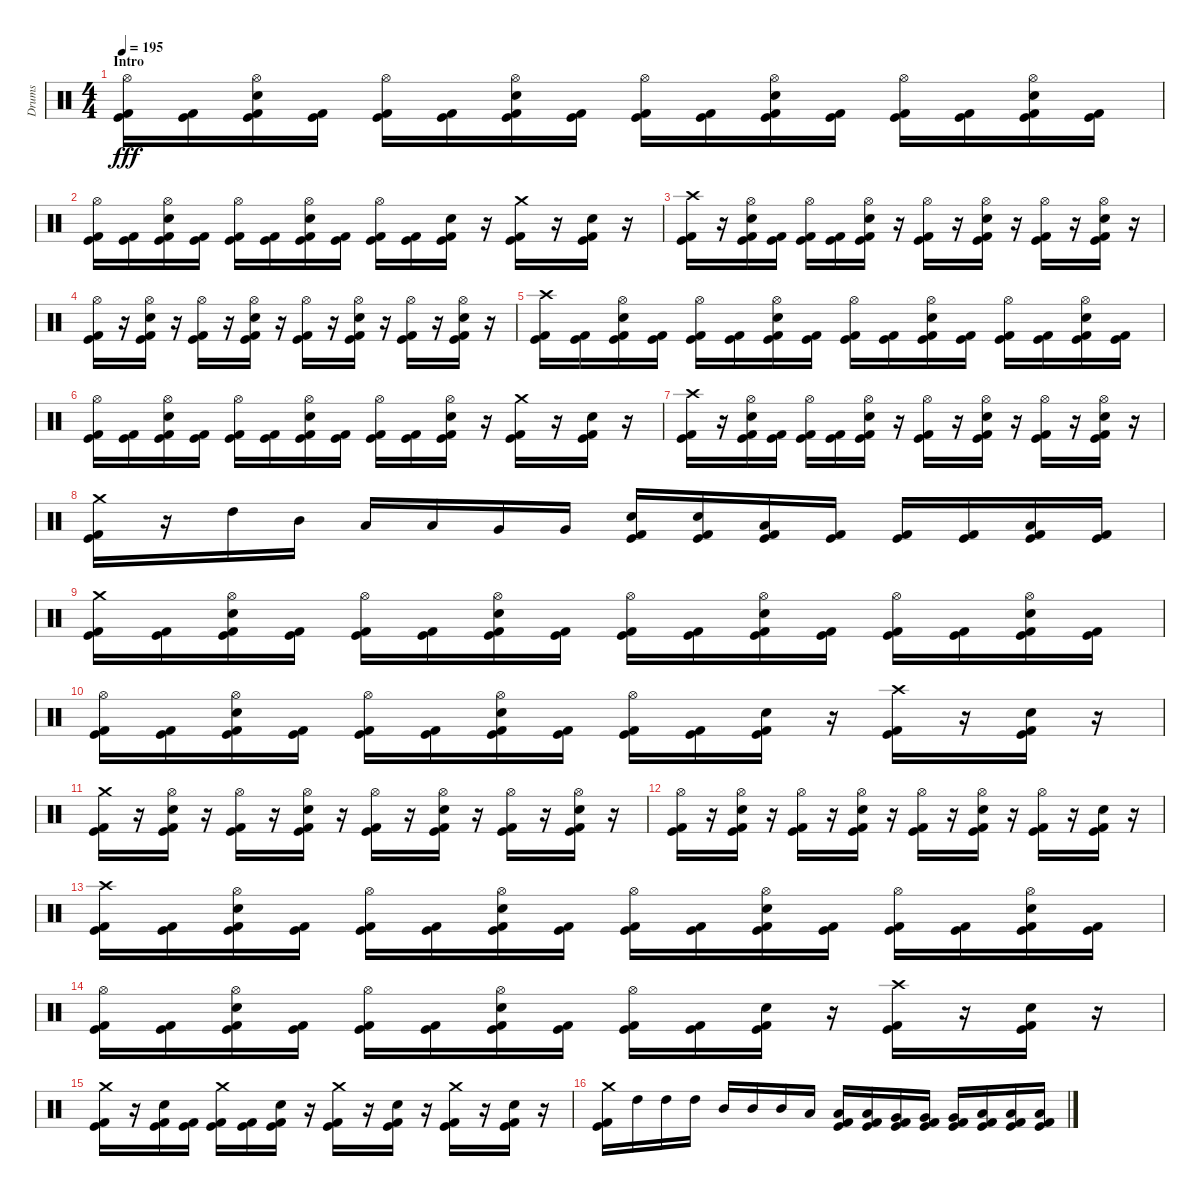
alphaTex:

\track ("Drums" "Drums") {instrument percussion}
\staff {score}
\articulation defaults
\ts (4 4)
\section ("" "Intro")
\tempo 195
\clef neutral
\ks c
("Kick (hit) 2" "Kick (hit)" "Hi-Hat (open)").16{dy fff} ("Kick (hit) 2" "Kick (hit)").16 ("Kick (hit) 2" "Kick (hit)" "Snare (hit) 2" "Hi-Hat (open)").16 ("Kick (hit) 2" "Kick (hit)").16 ("Kick (hit) 2" "Kick (hit)" "Hi-Hat (open)").16 ("Kick (hit) 2" "Kick (hit)").16 ("Kick (hit) 2" "Kick (hit)" "Snare (hit) 2" "Hi-Hat (open)").16 ("Kick (hit) 2" "Kick (hit)").16 ("Kick (hit) 2" "Kick (hit)" "Hi-Hat (open)").16 ("Kick (hit) 2" "Kick (hit)").16 ("Kick (hit) 2" "Kick (hit)" "Snare (hit) 2" "Hi-Hat (open)").16 ("Kick (hit) 2" "Kick (hit)").16 ("Kick (hit) 2" "Kick (hit)" "Hi-Hat (open)").16 ("Kick (hit) 2" "Kick (hit)").16 ("Kick (hit) 2" "Kick (hit)" "Snare (hit) 2" "Hi-Hat (open)").16 ("Kick (hit) 2" "Kick (hit)").16 |
("Kick (hit) 2" "Kick (hit)" "Hi-Hat (open)").16 ("Kick (hit) 2" "Kick (hit)").16 ("Kick (hit) 2" "Kick (hit)" "Snare (hit) 2" "Hi-Hat (open)").16 ("Kick (hit) 2" "Kick (hit)").16 ("Kick (hit) 2" "Kick (hit)" "Hi-Hat (open)").16 ("Kick (hit) 2" "Kick (hit)").16 ("Kick (hit) 2" "Kick (hit)" "Snare (hit) 2" "Hi-Hat (open)").16 ("Kick (hit) 2" "Kick (hit)").16 ("Kick (hit) 2" "Kick (hit)" "Hi-Hat (open)").16 ("Kick (hit) 2" "Kick (hit)").16 ("Kick (hit) 2" "Kick (hit)" "Snare (hit) 2").16 r.16 ("Kick (hit) 2" "Kick (hit)" "Crash medium (hit)").16 r.16 ("Kick (hit) 2" "Kick (hit)" "Snare (hit) 2").16 r.16 |
("Kick (hit) 2" "Kick (hit)" "Crash high (hit)").16 r.16 ("Kick (hit) 2" "Kick (hit)" "Snare (hit) 2" "Hi-Hat (open)").16 ("Kick (hit) 2" "Kick (hit)").16 ("Kick (hit) 2" "Kick (hit)" "Hi-Hat (open)").16 ("Kick (hit) 2" "Kick (hit)").16 ("Kick (hit) 2" "Kick (hit)" "Snare (hit) 2" "Hi-Hat (open)").16 r.16 ("Kick (hit) 2" "Kick (hit)" "Hi-Hat (open)").16 r.16 ("Kick (hit) 2" "Kick (hit)" "Snare (hit) 2" "Hi-Hat (open)").16 r.16 ("Kick (hit) 2" "Kick (hit)" "Hi-Hat (open)").16 r.16 ("Kick (hit) 2" "Kick (hit)" "Snare (hit) 2" "Hi-Hat (open)").16 r.16 |
("Kick (hit) 2" "Kick (hit)" "Hi-Hat (open)").16 r.16 ("Kick (hit) 2" "Kick (hit)" "Snare (hit) 2" "Hi-Hat (open)").16 r.16 ("Kick (hit) 2" "Kick (hit)" "Hi-Hat (open)").16 r.16 ("Kick (hit) 2" "Kick (hit)" "Snare (hit) 2" "Hi-Hat (open)").16 r.16 ("Kick (hit) 2" "Kick (hit)" "Hi-Hat (open)").16 r.16 ("Kick (hit) 2" "Kick (hit)" "Snare (hit) 2" "Hi-Hat (open)").16 r.16 ("Kick (hit) 2" "Kick (hit)" "Hi-Hat (open)").16 r.16 ("Kick (hit) 2" "Kick (hit)" "Snare (hit) 2" "Hi-Hat (open)").16 r.16 |
("Kick (hit) 2" "Kick (hit)" "Crash high (hit)").16 ("Kick (hit) 2" "Kick (hit)").16 ("Kick (hit) 2" "Kick (hit)" "Snare (hit) 2" "Hi-Hat (open)").16 ("Kick (hit) 2" "Kick (hit)").16 ("Kick (hit) 2" "Kick (hit)" "Hi-Hat (open)").16 ("Kick (hit) 2" "Kick (hit)").16 ("Kick (hit) 2" "Kick (hit)" "Snare (hit) 2" "Hi-Hat (open)").16 ("Kick (hit) 2" "Kick (hit)").16 ("Kick (hit) 2" "Kick (hit)" "Hi-Hat (open)").16 ("Kick (hit) 2" "Kick (hit)").16 ("Kick (hit) 2" "Kick (hit)" "Snare (hit) 2" "Hi-Hat (open)").16 ("Kick (hit) 2" "Kick (hit)").16 ("Kick (hit) 2" "Kick (hit)" "Hi-Hat (open)").16 ("Kick (hit) 2" "Kick (hit)").16 ("Kick (hit) 2" "Kick (hit)" "Snare (hit) 2" "Hi-Hat (open)").16 ("Kick (hit) 2" "Kick (hit)").16 |
("Kick (hit) 2" "Kick (hit)" "Hi-Hat (open)").16 ("Kick (hit) 2" "Kick (hit)").16 ("Kick (hit) 2" "Kick (hit)" "Snare (hit) 2" "Hi-Hat (open)").16 ("Kick (hit) 2" "Kick (hit)").16 ("Kick (hit) 2" "Kick (hit)" "Hi-Hat (open)").16 ("Kick (hit) 2" "Kick (hit)").16 ("Kick (hit) 2" "Kick (hit)" "Snare (hit) 2" "Hi-Hat (open)").16 ("Kick (hit) 2" "Kick (hit)").16 ("Kick (hit) 2" "Kick (hit)" "Hi-Hat (open)").16 ("Kick (hit) 2" "Kick (hit)").16 ("Kick (hit) 2" "Kick (hit)" "Snare (hit) 2" "Hi-Hat (open)").16 r.16 ("Kick (hit) 2" "Kick (hit)" "Crash medium (hit)").16 r.16 ("Kick (hit) 2" "Kick (hit)" "Snare (hit) 2").16 r.16 |
("Kick (hit) 2" "Kick (hit)" "Crash high (hit)").16 r.16 ("Kick (hit) 2" "Kick (hit)" "Snare (hit) 2" "Hi-Hat (open)").16 ("Kick (hit) 2" "Kick (hit)").16 ("Kick (hit) 2" "Kick (hit)" "Hi-Hat (open)").16 ("Kick (hit) 2" "Kick (hit)").16 ("Kick (hit) 2" "Kick (hit)" "Snare (hit) 2" "Hi-Hat (open)").16 r.16 ("Kick (hit) 2" "Kick (hit)" "Hi-Hat (open)").16 r.16 ("Kick (hit) 2" "Kick (hit)" "Snare (hit) 2" "Hi-Hat (open)").16 r.16 ("Kick (hit) 2" "Kick (hit)" "Hi-Hat (open)").16 r.16 ("Kick (hit) 2" "Kick (hit)" "Snare (hit) 2" "Hi-Hat (open)").16 r.16 |
("Kick (hit) 2" "Kick (hit)" "Crash medium (hit)").16 r.16 "High Tom (hit)".16 "Mid Tom (hit)".16 "Low Tom (hit)".16 "Low Tom (hit)".16 "Very Low Tom (hit)".16 "Very Low Tom (hit)".16 ("Kick (hit) 2" "Kick (hit)" "Snare (hit) 2").16 ("Kick (hit) 2" "Kick (hit)" "Snare (hit) 2").16 ("Kick (hit) 2" "Kick (hit)" "Low Tom (hit)").16 ("Kick (hit) 2" "Kick (hit)").16 ("Kick (hit) 2" "Kick (hit)").16 ("Kick (hit) 2" "Kick (hit)").16 ("Kick (hit) 2" "Kick (hit)" "Low Floor Tom (hit)").16 ("Kick (hit) 2" "Kick (hit)").16 |
("Kick (hit) 2" "Kick (hit)" "Crash medium (hit)").16 ("Kick (hit) 2" "Kick (hit)").16 ("Kick (hit) 2" "Kick (hit)" "Snare (hit) 2" "Hi-Hat (open)").16 ("Kick (hit) 2" "Kick (hit)").16 ("Kick (hit) 2" "Kick (hit)" "Hi-Hat (open)").16 ("Kick (hit) 2" "Kick (hit)").16 ("Kick (hit) 2" "Kick (hit)" "Snare (hit) 2" "Hi-Hat (open)").16 ("Kick (hit) 2" "Kick (hit)").16 ("Kick (hit) 2" "Kick (hit)" "Hi-Hat (open)").16 ("Kick (hit) 2" "Kick (hit)").16 ("Kick (hit) 2" "Kick (hit)" "Snare (hit) 2" "Hi-Hat (open)").16 ("Kick (hit) 2" "Kick (hit)").16 ("Kick (hit) 2" "Kick (hit)" "Hi-Hat (open)").16 ("Kick (hit) 2" "Kick (hit)").16 ("Kick (hit) 2" "Kick (hit)" "Snare (hit) 2" "Hi-Hat (open)").16 ("Kick (hit) 2" "Kick (hit)").16 |
("Kick (hit) 2" "Kick (hit)" "Hi-Hat (open)").16 ("Kick (hit) 2" "Kick (hit)").16 ("Kick (hit) 2" "Kick (hit)" "Snare (hit) 2" "Hi-Hat (open)").16 ("Kick (hit) 2" "Kick (hit)").16 ("Kick (hit) 2" "Kick (hit)" "Hi-Hat (open)").16 ("Kick (hit) 2" "Kick (hit)").16 ("Kick (hit) 2" "Kick (hit)" "Snare (hit) 2" "Hi-Hat (open)").16 ("Kick (hit) 2" "Kick (hit)").16 ("Kick (hit) 2" "Kick (hit)" "Hi-Hat (open)").16 ("Kick (hit) 2" "Kick (hit)").16 ("Kick (hit) 2" "Kick (hit)" "Snare (hit) 2").16 r.16 ("Kick (hit) 2" "Kick (hit)" "Crash high (hit)").16 r.16 ("Kick (hit) 2" "Kick (hit)" "Snare (hit) 2").16 r.16 |
("Kick (hit) 2" "Kick (hit)" "Crash medium (hit)").16 r.16 ("Kick (hit) 2" "Kick (hit)" "Snare (hit) 2" "Hi-Hat (open)").16 r.16 ("Kick (hit) 2" "Kick (hit)" "Hi-Hat (open)").16 r.16 ("Kick (hit) 2" "Kick (hit)" "Snare (hit) 2" "Hi-Hat (open)").16 r.16 ("Kick (hit) 2" "Kick (hit)" "Hi-Hat (open)").16 r.16 ("Kick (hit) 2" "Kick (hit)" "Snare (hit) 2" "Hi-Hat (open)").16 r.16 ("Kick (hit) 2" "Kick (hit)" "Hi-Hat (open)").16 r.16 ("Kick (hit) 2" "Kick (hit)" "Snare (hit) 2" "Hi-Hat (open)").16 r.16 |
("Kick (hit) 2" "Kick (hit)" "Hi-Hat (open)").16 r.16 ("Kick (hit) 2" "Kick (hit)" "Snare (hit) 2" "Hi-Hat (open)").16 r.16 ("Kick (hit) 2" "Kick (hit)" "Hi-Hat (open)").16 r.16 ("Kick (hit) 2" "Kick (hit)" "Snare (hit) 2" "Hi-Hat (open)").16 r.16 ("Kick (hit) 2" "Kick (hit)" "Hi-Hat (open)").16 r.16 ("Kick (hit) 2" "Kick (hit)" "Snare (hit) 2" "Hi-Hat (open)").16 r.16 ("Kick (hit) 2" "Kick (hit)" "Hi-Hat (open)").16 r.16 ("Kick (hit) 2" "Kick (hit)" "Snare (hit) 2").16 r.16 |
("Kick (hit) 2" "Kick (hit)" "Crash high (hit)").16 ("Kick (hit) 2" "Kick (hit)").16 ("Kick (hit) 2" "Kick (hit)" "Snare (hit) 2" "Hi-Hat (open)").16 ("Kick (hit) 2" "Kick (hit)").16 ("Kick (hit) 2" "Kick (hit)" "Hi-Hat (open)").16 ("Kick (hit) 2" "Kick (hit)").16 ("Kick (hit) 2" "Kick (hit)" "Snare (hit) 2" "Hi-Hat (open)").16 ("Kick (hit) 2" "Kick (hit)").16 ("Kick (hit) 2" "Kick (hit)" "Hi-Hat (open)").16 ("Kick (hit) 2" "Kick (hit)").16 ("Kick (hit) 2" "Kick (hit)" "Snare (hit) 2" "Hi-Hat (open)").16 ("Kick (hit) 2" "Kick (hit)").16 ("Kick (hit) 2" "Kick (hit)" "Hi-Hat (open)").16 ("Kick (hit) 2" "Kick (hit)").16 ("Kick (hit) 2" "Kick (hit)" "Snare (hit) 2" "Hi-Hat (open)").16 ("Kick (hit) 2" "Kick (hit)").16 |
("Kick (hit) 2" "Kick (hit)" "Hi-Hat (open)").16 ("Kick (hit) 2" "Kick (hit)").16 ("Kick (hit) 2" "Kick (hit)" "Snare (hit) 2" "Hi-Hat (open)").16 ("Kick (hit) 2" "Kick (hit)").16 ("Kick (hit) 2" "Kick (hit)" "Hi-Hat (open)").16 ("Kick (hit) 2" "Kick (hit)").16 ("Kick (hit) 2" "Kick (hit)" "Snare (hit) 2" "Hi-Hat (open)").16 ("Kick (hit) 2" "Kick (hit)").16 ("Kick (hit) 2" "Kick (hit)" "Hi-Hat (open)").16 ("Kick (hit) 2" "Kick (hit)").16 ("Kick (hit) 2" "Kick (hit)" "Snare (hit) 2").16 r.16 ("Kick (hit) 2" "Kick (hit)" "Crash high (hit)").16 r.16 ("Kick (hit) 2" "Kick (hit)" "Snare (hit) 2").16 r.16 |
("Kick (hit) 2" "Kick (hit)" "Crash medium (hit)").16 r.16 ("Kick (hit) 2" "Kick (hit)" "Snare (hit) 2").16 ("Kick (hit) 2" "Kick (hit)").16 ("Kick (hit) 2" "Kick (hit)" "Crash medium (hit)").16 ("Kick (hit) 2" "Kick (hit)").16 ("Kick (hit) 2" "Kick (hit)" "Snare (hit) 2").16 r.16 ("Kick (hit) 2" "Kick (hit)" "Crash medium (hit)").16 r.16 ("Kick (hit) 2" "Kick (hit)" "Snare (hit) 2").16 r.16 ("Kick (hit) 2" "Kick (hit)" "Crash medium (hit)").16 r.16 ("Kick (hit) 2" "Kick (hit)" "Snare (hit) 2").16 r.16 |
("Kick (hit) 2" "Kick (hit)" "Crash medium (hit)").16 "High Tom (hit)".16 "High Tom (hit)".16 "High Tom (hit)".16 "Mid Tom (hit)".16 "Mid Tom (hit)".16 "Mid Tom (hit)".16 "Low Tom (hit)".16 ("Kick (hit) 2" "Kick (hit)" "Low Tom (hit)").16 ("Kick (hit) 2" "Kick (hit)" "Low Tom (hit)").16 ("Kick (hit) 2" "Kick (hit)" "Very Low Tom (hit)").16 ("Kick (hit) 2" "Kick (hit)" "Very Low Tom (hit)").16 ("Kick (hit) 2" "Kick (hit)" "Very Low Tom (hit)").16 ("Kick (hit) 2" "Kick (hit)" "Low Floor Tom (hit)").16 ("Kick (hit) 2" "Kick (hit)" "Low Floor Tom (hit)").16 ("Kick (hit) 2" "Kick (hit)" "Low Floor Tom (hit)").16
